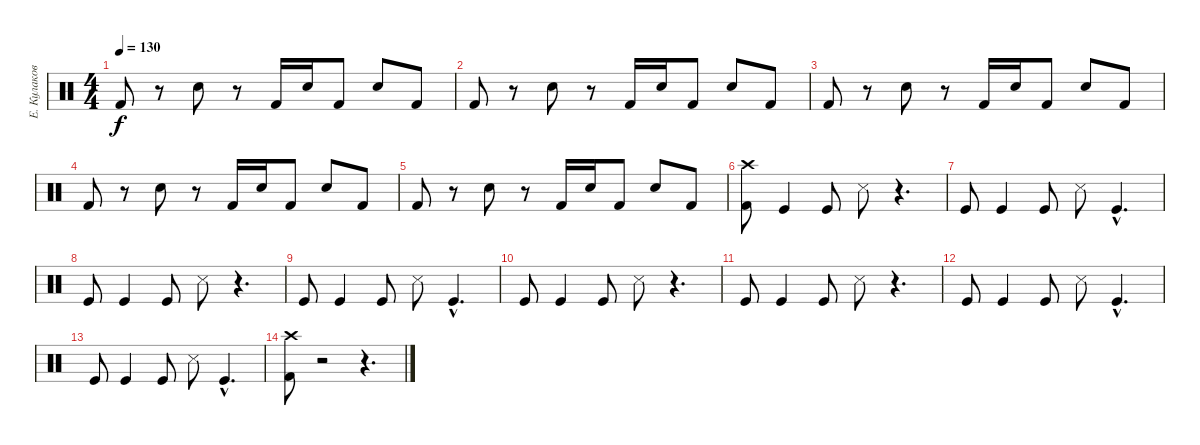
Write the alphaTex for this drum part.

\track ("Е. Кулаков" "Е. Кулаков") {instrument percussion}
\staff {score}
\articulation defaults
\ts (4 4)
\tempo 130
\clef neutral
\ks c "Kick (hit) 2".8{dy f}
r.8 "Electric Snare (hit)".8 r.8 "Kick (hit) 2".16 "Electric Snare (hit)".16 "Kick (hit) 2".8 "Electric Snare (hit)".8 "Kick (hit) 2".8 |
"Kick (hit) 2".8 r.8 "Electric Snare (hit)".8 r.8 "Kick (hit) 2".16 "Electric Snare (hit)".16 "Kick (hit) 2".8 "Electric Snare (hit)".8 "Kick (hit) 2".8 |
"Kick (hit) 2".8 r.8 "Electric Snare (hit)".8 r.8 "Kick (hit) 2".16 "Electric Snare (hit)".16 "Kick (hit) 2".8 "Electric Snare (hit)".8 "Kick (hit) 2".8 |
"Kick (hit) 2".8 r.8 "Electric Snare (hit)".8 r.8 "Kick (hit) 2".16 "Electric Snare (hit)".16 "Kick (hit) 2".8 "Electric Snare (hit)".8 "Kick (hit) 2".8 |
"Kick (hit) 2".8 r.8 "Electric Snare (hit)".8 r.8 "Kick (hit) 2".16 "Electric Snare (hit)".16 "Kick (hit) 2".8 "Electric Snare (hit)".8 "Kick (hit) 2".8 |
("Crash high (hit)" "Kick (hit) 2").8 "Kick (hit)".4 "Kick (hit)".8 "Snare (side stick) 3".8 r.4{d} |
"Kick (hit)".8 "Kick (hit)".4 "Kick (hit)".8 "Snare (side stick) 3".8 "Kick (hit)"{hac}.4{d} |
"Kick (hit)".8 "Kick (hit)".4 "Kick (hit)".8 "Snare (side stick) 3".8 r.4{d} |
"Kick (hit)".8 "Kick (hit)".4 "Kick (hit)".8 "Snare (side stick) 3".8 "Kick (hit)"{hac}.4{d} |
"Kick (hit)".8 "Kick (hit)".4 "Kick (hit)".8 "Snare (side stick) 3".8 r.4{d} |
"Kick (hit)".8 "Kick (hit)".4 "Kick (hit)".8 "Snare (side stick) 3".8 r.4{d} |
"Kick (hit)".8 "Kick (hit)".4 "Kick (hit)".8 "Snare (side stick) 3".8 "Kick (hit)"{hac}.4{d} |
"Kick (hit)".8 "Kick (hit)".4 "Kick (hit)".8 "Snare (side stick) 3".8 "Kick (hit)"{hac}.4{d} |
("Crash high (hit)" "Kick (hit) 2").8 r.2 r.4{d}
